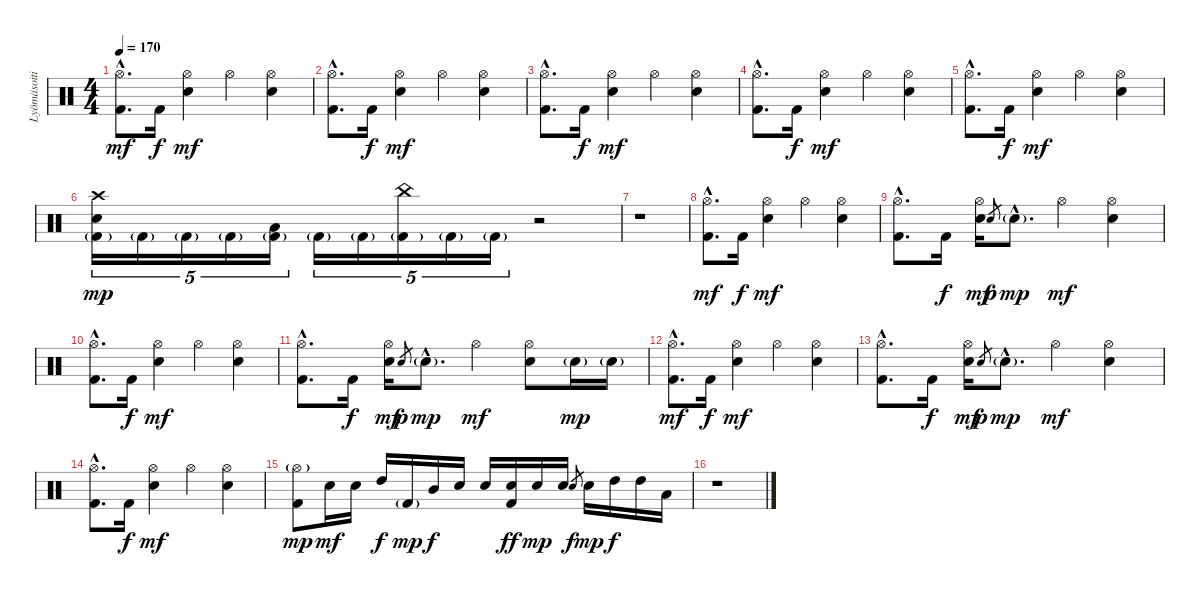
\track ("Lyömäsoitin" "Lyömäsoiti") {instrument percussion}
\staff {score}
\articulation defaults
\ts (4 4)
\tempo 170
\clef neutral
\ks c
("Hi-Hat (open)"{hac} "Kick (hit) 2"{hac}).8{d dy mf} "Kick (hit) 2".16{dy f} ("Hi-Hat (open)" "Electric Snare (hit)").4{dy mf} "Hi-Hat (open)".4 ("Hi-Hat (open)" "Electric Snare (hit)").4 |
("Hi-Hat (open)"{hac} "Kick (hit) 2"{hac}).8{d} "Kick (hit) 2".16{dy f} ("Hi-Hat (open)" "Electric Snare (hit)").4{dy mf} "Hi-Hat (open)".4 ("Hi-Hat (open)" "Electric Snare (hit)").4 |
("Hi-Hat (open)"{hac} "Kick (hit) 2"{hac}).8{d} "Kick (hit) 2".16{dy f} ("Hi-Hat (open)" "Electric Snare (hit)").4{dy mf} "Hi-Hat (open)".4 ("Hi-Hat (open)" "Electric Snare (hit)").4 |
("Hi-Hat (open)"{hac} "Kick (hit) 2"{hac}).8{d} "Kick (hit) 2".16{dy f} ("Hi-Hat (open)" "Electric Snare (hit)").4{dy mf} "Hi-Hat (open)".4 ("Hi-Hat (open)" "Electric Snare (hit)").4 |
("Hi-Hat (open)"{hac} "Kick (hit) 2"{hac}).8{d} "Kick (hit) 2".16{dy f} ("Hi-Hat (open)" "Electric Snare (hit)").4{dy mf} "Hi-Hat (open)".4 ("Hi-Hat (open)" "Electric Snare (hit)").4 |
("Kick (hit) 2"{g} "Crash high (hit)" "Electric Snare (hit)").16{tu (5 4) dy mp} "Kick (hit) 2"{g}.16{tu (5 4)} "Kick (hit) 2"{g}.16{tu (5 4)} "Kick (hit) 2"{g}.16{tu (5 4)} ("Kick (hit) 2"{g} "Low Floor Tom (hit)").16{tu (5 4)} "Kick (hit) 2"{g}.16{tu (5 4)} "Kick (hit) 2"{g}.16{tu (5 4)} ("Kick (hit) 2"{g} "China (hit)").16{tu (5 4)} "Kick (hit) 2"{g}.16{tu (5 4)} "Kick (hit) 2"{g}.16{tu (5 4)} r.2 |
r.1 |
("Hi-Hat (open)"{hac} "Kick (hit) 2"{hac}).8{d dy mf} "Kick (hit) 2".16{dy f} ("Hi-Hat (open)" "Electric Snare (hit)").4{dy mf} "Hi-Hat (open)".4 ("Hi-Hat (open)" "Electric Snare (hit)").4 |
("Hi-Hat (open)"{hac} "Kick (hit) 2"{hac}).8{d} "Kick (hit) 2".16{dy f} ("Hi-Hat (open)" "Electric Snare (hit)").16{dy mf} "Electric Snare (hit)".8{gr dy p} "Electric Snare (hit)"{g hac}.8{d dy mp} "Hi-Hat (open)".4{dy mf} ("Hi-Hat (open)" "Electric Snare (hit)").4 |
("Hi-Hat (open)"{hac} "Kick (hit) 2"{hac}).8{d} "Kick (hit) 2".16{dy f} ("Hi-Hat (open)" "Electric Snare (hit)").4{dy mf} "Hi-Hat (open)".4 ("Hi-Hat (open)" "Electric Snare (hit)").4 |
("Hi-Hat (open)"{hac} "Kick (hit) 2"{hac}).8{d} "Kick (hit) 2".16{dy f} ("Hi-Hat (open)" "Electric Snare (hit)").16{dy mf} "Electric Snare (hit)".8{gr dy p} "Electric Snare (hit)"{g hac}.8{d dy mp} "Hi-Hat (open)".4{dy mf} ("Hi-Hat (open)" "Electric Snare (hit)").8 "Electric Snare (hit)"{g}.16{dy mp} "Electric Snare (hit)"{g}.16 |
("Hi-Hat (open)"{hac} "Kick (hit) 2"{hac}).8{d dy mf} "Kick (hit) 2".16{dy f} ("Hi-Hat (open)" "Electric Snare (hit)").4{dy mf} "Hi-Hat (open)".4 ("Hi-Hat (open)" "Electric Snare (hit)").4 |
("Hi-Hat (open)"{hac} "Kick (hit) 2"{hac}).8{d} "Kick (hit) 2".16{dy f} ("Hi-Hat (open)" "Electric Snare (hit)").16{dy mf} "Electric Snare (hit)".8{gr dy p} "Electric Snare (hit)"{g hac}.8{d dy mp} "Hi-Hat (open)".4{dy mf} ("Hi-Hat (open)" "Electric Snare (hit)").4 |
("Hi-Hat (open)"{hac} "Kick (hit) 2"{hac}).8{d} "Kick (hit) 2".16{dy f} ("Hi-Hat (open)" "Electric Snare (hit)").4{dy mf} "Hi-Hat (open)".4 ("Hi-Hat (open)" "Electric Snare (hit)").4 |
("Kick (hit) 2" "Hi-Hat (open)"{g}).8{dy mp} "Electric Snare (hit)".16{dy mf} "Electric Snare (hit)".16 "High Tom (hit)".16{dy f} "Kick (hit) 2"{g}.16{dy mp} "Mid Tom (hit)".16{dy f} "Electric Snare (hit)".16 "Electric Snare (hit)".16 ("Kick (hit) 2" "Electric Snare (hit)").16{dy ff} "Electric Snare (hit)".16{dy mp} "Electric Snare (hit)".16 "Electric Snare (hit)".8{gr dy f} "Electric Snare (hit)".16{dy mp} "High Tom (hit)".16{dy f} "High Tom (hit)".16 "Low Floor Tom (hit)".16 |
r.1
